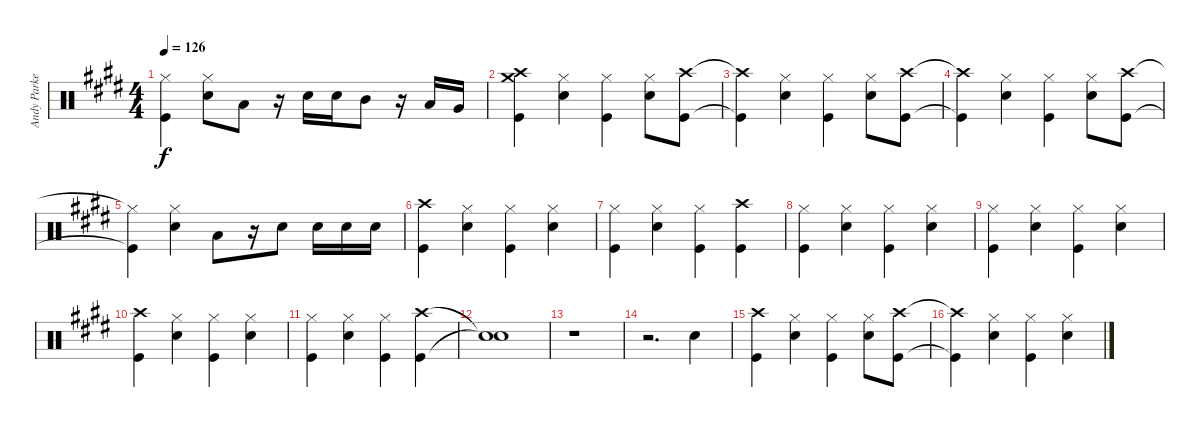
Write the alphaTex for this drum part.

\track ("Andy Parker Drums" "Andy Parke") {instrument percussion}
\staff {score}
\articulation defaults
\ts (4 4)
\tempo 126
\clef neutral
\ks e
("Hi-Hat (closed)" "Kick (hit)").4{dy f} ("Hi-Hat (closed)" "Snare (hit) 2").8 "Low Tom (hit)".8 r.16 "Snare (hit) 2".16 "Snare (hit) 2".16 "Mid Tom (hit)".8 r.16 "Low Tom (hit)".16 "Very Low Tom (hit)".16 |
("Crash high (hit)" "Crash medium (hit)" "Kick (hit)").4 ("Hi-Hat (closed)" "Snare (hit) 2").4 ("Hi-Hat (closed)" "Kick (hit)").4 ("Hi-Hat (closed)" "Snare (hit) 2").8 ("Crash high (hit)" "Kick (hit)").8 |
("Crash high (hit)"{t} "Kick (hit)"{t}).4 ("Hi-Hat (closed)" "Snare (hit) 2").4 ("Hi-Hat (closed)" "Kick (hit)").4 ("Hi-Hat (closed)" "Snare (hit) 2").8 ("Crash high (hit)" "Kick (hit)").8 |
("Crash high (hit)"{t} "Kick (hit)"{t}).4 ("Hi-Hat (closed)" "Snare (hit) 2").4 ("Hi-Hat (closed)" "Kick (hit)").4 ("Hi-Hat (closed)" "Snare (hit) 2").8 ("Crash high (hit)" "Kick (hit)").8 |
("Hi-Hat (closed)"{t} "Kick (hit)"{t}).4 ("Hi-Hat (closed)" "Snare (hit) 2").4 "Low Tom (hit)".8 r.16 "Snare (hit) 2".8 "Snare (hit) 2".16 "Snare (hit) 2".16 "Snare (hit) 2".16 |
("Crash high (hit)" "Kick (hit)").4 ("Hi-Hat (closed)" "Snare (hit) 2").4 ("Hi-Hat (closed)" "Kick (hit)").4 ("Hi-Hat (closed)" "Snare (hit) 2").4 |
("Hi-Hat (closed)" "Kick (hit)").4 ("Hi-Hat (closed)" "Snare (hit) 2").4 ("Hi-Hat (closed)" "Kick (hit)").4 ("Crash high (hit)" "Kick (hit)").4 |
("Hi-Hat (closed)" "Kick (hit)").4 ("Hi-Hat (closed)" "Snare (hit) 2").4 ("Hi-Hat (closed)" "Kick (hit)").4 ("Hi-Hat (closed)" "Snare (hit) 2").4 |
("Hi-Hat (closed)" "Kick (hit)").4 ("Hi-Hat (closed)" "Snare (hit) 2").4 ("Hi-Hat (closed)" "Kick (hit)").4 ("Hi-Hat (closed)" "Snare (hit) 2").4 |
("Crash high (hit)" "Kick (hit)").4 ("Hi-Hat (closed)" "Snare (hit) 2").4 ("Hi-Hat (closed)" "Kick (hit)").4 ("Hi-Hat (closed)" "Snare (hit) 2").4 |
("Hi-Hat (closed)" "Kick (hit)").4 ("Hi-Hat (closed)" "Snare (hit) 2").4 ("Hi-Hat (closed)" "Kick (hit)").4 ("Crash high (hit)" "Kick (hit)").4 |
("Snare (hit)"{t} "Snare (hit)"{t}).1 |
r.1 |
r.2{d} "Snare (hit) 2".4 |
("Crash high (hit)" "Kick (hit)").4 ("Hi-Hat (closed)" "Snare (hit) 2").4 ("Hi-Hat (closed)" "Kick (hit)").4 ("Hi-Hat (closed)" "Snare (hit) 2").8 ("Crash high (hit)" "Kick (hit)").8 |
("Crash high (hit)"{t} "Kick (hit)"{t}).4 ("Hi-Hat (closed)" "Snare (hit) 2").4 ("Hi-Hat (closed)" "Kick (hit)").4 ("Hi-Hat (closed)" "Snare (hit) 2").4
